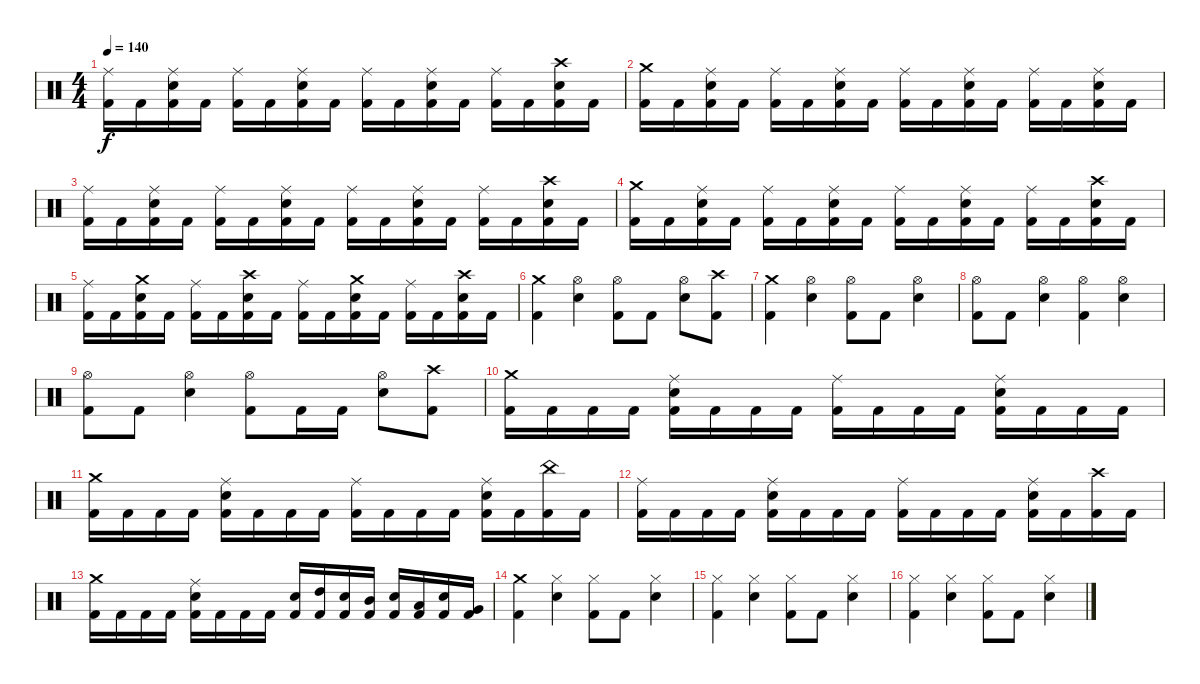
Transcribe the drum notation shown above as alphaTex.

\track "" {instrument percussion}
\staff {score}
\articulation defaults
\ts (4 4)
\tempo 140
\clef neutral
\ks c
("Ride (middle)" "Kick (hit) 2").16{dy f} "Kick (hit) 2".16 ("Ride (middle)" "Electric Snare (hit)" "Kick (hit) 2").16 "Kick (hit) 2".16 ("Ride (middle)" "Kick (hit) 2").16 "Kick (hit) 2".16 ("Ride (middle)" "Electric Snare (hit)" "Kick (hit) 2").16 "Kick (hit) 2".16 ("Ride (middle)" "Kick (hit) 2").16 "Kick (hit) 2".16 ("Ride (middle)" "Electric Snare (hit)" "Kick (hit) 2").16 "Kick (hit) 2".16 ("Ride (middle)" "Kick (hit) 2").16 "Kick (hit) 2".16 ("Crash high (hit)" "Electric Snare (hit)" "Kick (hit) 2").16 "Kick (hit) 2".16 |
("Crash medium (hit)" "Kick (hit) 2").16 "Kick (hit) 2".16 ("Ride (middle)" "Electric Snare (hit)" "Kick (hit) 2").16 "Kick (hit) 2".16 ("Ride (middle)" "Kick (hit) 2").16 "Kick (hit) 2".16 ("Ride (middle)" "Electric Snare (hit)" "Kick (hit) 2").16 "Kick (hit) 2".16 ("Ride (middle)" "Kick (hit) 2").16 "Kick (hit) 2".16 ("Ride (middle)" "Electric Snare (hit)" "Kick (hit) 2").16 "Kick (hit) 2".16 ("Ride (middle)" "Kick (hit) 2").16 "Kick (hit) 2".16 ("Ride (middle)" "Electric Snare (hit)" "Kick (hit) 2").16 "Kick (hit) 2".16 |
("Ride (middle)" "Kick (hit) 2").16 "Kick (hit) 2".16 ("Ride (middle)" "Electric Snare (hit)" "Kick (hit) 2").16 "Kick (hit) 2".16 ("Ride (middle)" "Kick (hit) 2").16 "Kick (hit) 2".16 ("Ride (middle)" "Electric Snare (hit)" "Kick (hit) 2").16 "Kick (hit) 2".16 ("Ride (middle)" "Kick (hit) 2").16 "Kick (hit) 2".16 ("Ride (middle)" "Electric Snare (hit)" "Kick (hit) 2").16 "Kick (hit) 2".16 ("Ride (middle)" "Kick (hit) 2").16 "Kick (hit) 2".16 ("Crash high (hit)" "Electric Snare (hit)" "Kick (hit) 2").16 "Kick (hit) 2".16 |
("Crash medium (hit)" "Kick (hit) 2").16 "Kick (hit) 2".16 ("Ride (middle)" "Electric Snare (hit)" "Kick (hit) 2").16 "Kick (hit) 2".16 ("Ride (middle)" "Kick (hit) 2").16 "Kick (hit) 2".16 ("Ride (middle)" "Electric Snare (hit)" "Kick (hit) 2").16 "Kick (hit) 2".16 ("Ride (middle)" "Kick (hit) 2").16 "Kick (hit) 2".16 ("Ride (middle)" "Electric Snare (hit)" "Kick (hit) 2").16 "Kick (hit) 2".16 ("Ride (middle)" "Kick (hit) 2").16 "Kick (hit) 2".16 ("Crash high (hit)" "Electric Snare (hit)" "Kick (hit) 2").16 "Kick (hit) 2".16 |
("Ride (middle)" "Kick (hit) 2").16 "Kick (hit) 2".16 ("Crash medium (hit)" "Electric Snare (hit)" "Kick (hit) 2").16 "Kick (hit) 2".16 ("Ride (middle)" "Kick (hit) 2").16 "Kick (hit) 2".16 ("Crash high (hit)" "Electric Snare (hit)" "Kick (hit) 2").16 "Kick (hit) 2".16 ("Ride (middle)" "Kick (hit) 2").16 "Kick (hit) 2".16 ("Crash medium (hit)" "Electric Snare (hit)" "Kick (hit) 2").16 "Kick (hit) 2".16 ("Ride (middle)" "Kick (hit) 2").16 "Kick (hit) 2".16 ("Crash high (hit)" "Electric Snare (hit)" "Kick (hit) 2").16 "Kick (hit) 2".16 |
("Crash medium (hit)" "Kick (hit) 2").4 ("Hi-Hat (open)" "Electric Snare (hit)").4 ("Hi-Hat (open)" "Kick (hit) 2").8 "Kick (hit) 2".8 ("Hi-Hat (open)" "Electric Snare (hit)").8 ("Crash high (hit)" "Kick (hit) 2").8 |
("Crash medium (hit)" "Kick (hit) 2").4 ("Hi-Hat (open)" "Electric Snare (hit)").4 ("Hi-Hat (open)" "Kick (hit) 2").8 "Kick (hit) 2".8 ("Hi-Hat (open)" "Electric Snare (hit)").4 |
("Hi-Hat (open)" "Kick (hit) 2").8 "Kick (hit) 2".8 ("Hi-Hat (open)" "Electric Snare (hit)").4 ("Hi-Hat (open)" "Kick (hit) 2").4 ("Hi-Hat (open)" "Electric Snare (hit)").4 |
("Hi-Hat (open)" "Kick (hit) 2").8 "Kick (hit) 2".8 ("Hi-Hat (open)" "Electric Snare (hit)").4 ("Hi-Hat (open)" "Kick (hit) 2").8 "Kick (hit) 2".16 "Kick (hit) 2".16 ("Hi-Hat (open)" "Electric Snare (hit)").8 ("Crash high (hit)" "Kick (hit) 2").8 |
("Crash medium (hit)" "Kick (hit) 2").16 "Kick (hit) 2".16 "Kick (hit) 2".16 "Kick (hit) 2".16 ("Ride (middle)" "Electric Snare (hit)" "Kick (hit) 2").16 "Kick (hit) 2".16 "Kick (hit) 2".16 "Kick (hit) 2".16 ("Ride (middle)" "Kick (hit) 2").16 "Kick (hit) 2".16 "Kick (hit) 2".16 "Kick (hit) 2".16 ("Ride (middle)" "Electric Snare (hit)" "Kick (hit) 2").16 "Kick (hit) 2".16 "Kick (hit) 2".16 "Kick (hit) 2".16 |
("Crash medium (hit)" "Kick (hit) 2").16 "Kick (hit) 2".16 "Kick (hit) 2".16 "Kick (hit) 2".16 ("Ride (middle)" "Electric Snare (hit)" "Kick (hit) 2").16 "Kick (hit) 2".16 "Kick (hit) 2".16 "Kick (hit) 2".16 ("Ride (middle)" "Kick (hit) 2").16 "Kick (hit) 2".16 "Kick (hit) 2".16 "Kick (hit) 2".16 ("Ride (middle)" "Electric Snare (hit)" "Kick (hit) 2").16 "Kick (hit) 2".16 ("China (hit)" "Kick (hit) 2").16 "Kick (hit) 2".16 |
("Ride (middle)" "Kick (hit) 2").16 "Kick (hit) 2".16 "Kick (hit) 2".16 "Kick (hit) 2".16 ("Ride (middle)" "Electric Snare (hit)" "Kick (hit) 2").16 "Kick (hit) 2".16 "Kick (hit) 2".16 "Kick (hit) 2".16 ("Ride (middle)" "Kick (hit) 2").16 "Kick (hit) 2".16 "Kick (hit) 2".16 "Kick (hit) 2".16 ("Ride (middle)" "Electric Snare (hit)" "Kick (hit) 2").16 "Kick (hit) 2".16 ("Crash high (hit)" "Kick (hit) 2").16 "Kick (hit) 2".16 |
("Crash medium (hit)" "Kick (hit) 2").16 "Kick (hit) 2".16 "Kick (hit) 2".16 "Kick (hit) 2".16 ("Ride (middle)" "Electric Snare (hit)" "Kick (hit) 2").16 "Kick (hit) 2".16 "Kick (hit) 2".16 "Kick (hit) 2".16 ("Electric Snare (hit)" "Kick (hit) 2").16 ("High Tom (hit)" "Kick (hit) 2").16 ("Electric Snare (hit)" "Kick (hit) 2").16 ("Mid Tom (hit)" "Kick (hit) 2").16 ("Electric Snare (hit)" "Kick (hit) 2").16 ("Low Tom (hit)" "Kick (hit) 2").16 ("Electric Snare (hit)" "Kick (hit) 2").16 ("Very Low Tom (hit)" "Kick (hit) 2").16 |
("Crash medium (hit)" "Kick (hit) 2").4 ("Hi-Hat (closed)" "Electric Snare (hit)").4 ("Hi-Hat (closed)" "Kick (hit) 2").8 "Kick (hit) 2".8 ("Hi-Hat (closed)" "Electric Snare (hit)").4 |
("Hi-Hat (closed)" "Kick (hit) 2").4 ("Hi-Hat (closed)" "Electric Snare (hit)").4 ("Hi-Hat (closed)" "Kick (hit) 2").8 "Kick (hit) 2".8 ("Hi-Hat (closed)" "Electric Snare (hit)").4 |
("Hi-Hat (closed)" "Kick (hit) 2").4 ("Hi-Hat (closed)" "Electric Snare (hit)").4 ("Hi-Hat (closed)" "Kick (hit) 2").8 "Kick (hit) 2".8 ("Hi-Hat (closed)" "Electric Snare (hit)").4
